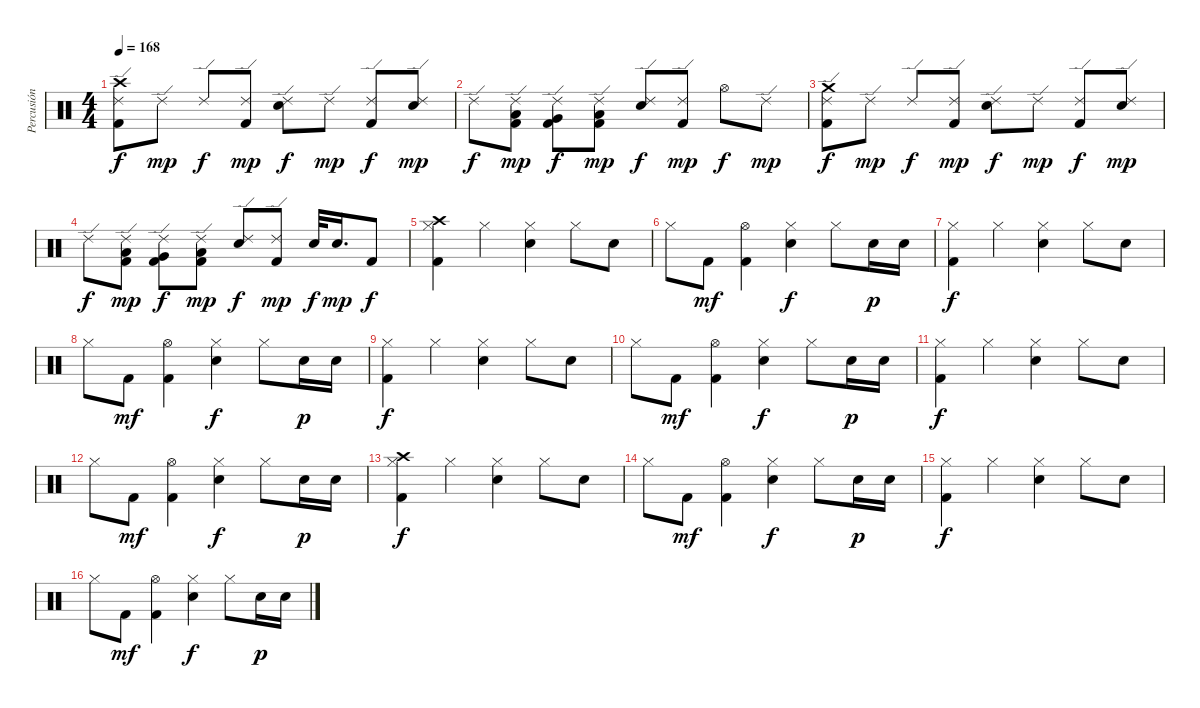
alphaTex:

\track ("Percusión" "Percusión") {instrument percussion}
\staff {score}
\articulation defaults
\ts (4 4)
\tempo 168
\clef neutral
\ks c
("Crash high (hit)" "Ride (edge) 2" "Kick (hit) 2").8{dy f} "Ride (edge) 2".8{dy mp} "Ride (edge) 2".8{dy f} ("Ride (edge) 2" "Kick (hit) 2").8{dy mp} ("Ride (edge) 2" "Electric Snare (hit)").8{dy f} "Ride (edge) 2".8{dy mp} ("Ride (edge) 2" "Kick (hit) 2").8{dy f} ("Ride (edge) 2" "Electric Snare (hit)").8{dy mp} |
"Ride (edge) 2".8{dy f} ("Ride (edge) 2" "Low Tom (hit)" "Kick (hit) 2").8{dy mp} ("Ride (edge) 2" "Very Low Tom (hit)" "Kick (hit) 2").8{dy f} ("Ride (edge) 2" "Low Floor Tom (hit)" "Kick (hit) 2").8{dy mp} ("Ride (edge) 2" "Electric Snare (hit)").8{dy f} ("Ride (edge) 2" "Kick (hit) 2").8{dy mp} "Hi-Hat (open)".8{dy f} "Ride (edge) 2".8{dy mp} |
("Crash medium (hit)" "Ride (edge) 2" "Kick (hit) 2").8{dy f} "Ride (edge) 2".8{dy mp} "Ride (edge) 2".8{dy f} ("Ride (edge) 2" "Kick (hit) 2").8{dy mp} ("Ride (edge) 2" "Electric Snare (hit)").8{dy f} "Ride (edge) 2".8{dy mp} ("Ride (edge) 2" "Kick (hit) 2").8{dy f} ("Ride (edge) 2" "Electric Snare (hit)").8{dy mp} |
"Ride (edge) 2".8{dy f} ("Ride (edge) 2" "Low Tom (hit)" "Kick (hit) 2").8{dy mp} ("Ride (edge) 2" "Very Low Tom (hit)" "Kick (hit) 2").8{dy f} ("Ride (edge) 2" "Low Floor Tom (hit)" "Kick (hit) 2").8{dy mp} ("Ride (edge) 2" "Electric Snare (hit)").8{dy f} ("Ride (edge) 2" "Kick (hit) 2").8{dy mp} "Electric Snare (hit)".32{dy f} "Electric Snare (hit)".16{d dy mp} "Kick (hit) 2".8{dy f} |
("Crash high (hit)" "Hi-Hat (closed)" "Kick (hit) 2").4 "Hi-Hat (closed)".4 ("Hi-Hat (closed)" "Electric Snare (hit)").4 "Hi-Hat (closed)".8 "Electric Snare (hit)".8 |
"Hi-Hat (closed)".8 "Kick (hit) 2".8{dy mf} ("Hi-Hat (open)" "Kick (hit) 2").4 ("Hi-Hat (closed)" "Electric Snare (hit)").4{dy f} "Hi-Hat (closed)".8 "Electric Snare (hit)".16{dy p} "Electric Snare (hit)".16 |
("Hi-Hat (closed)" "Kick (hit) 2").4{dy f} "Hi-Hat (closed)".4 ("Hi-Hat (closed)" "Electric Snare (hit)").4 "Hi-Hat (closed)".8 "Electric Snare (hit)".8 |
"Hi-Hat (closed)".8 "Kick (hit) 2".8{dy mf} ("Hi-Hat (open)" "Kick (hit) 2").4 ("Hi-Hat (closed)" "Electric Snare (hit)").4{dy f} "Hi-Hat (closed)".8 "Electric Snare (hit)".16{dy p} "Electric Snare (hit)".16 |
("Hi-Hat (closed)" "Kick (hit) 2").4{dy f} "Hi-Hat (closed)".4 ("Hi-Hat (closed)" "Electric Snare (hit)").4 "Hi-Hat (closed)".8 "Electric Snare (hit)".8 |
"Hi-Hat (closed)".8 "Kick (hit) 2".8{dy mf} ("Hi-Hat (open)" "Kick (hit) 2").4 ("Hi-Hat (closed)" "Electric Snare (hit)").4{dy f} "Hi-Hat (closed)".8 "Electric Snare (hit)".16{dy p} "Electric Snare (hit)".16 |
("Hi-Hat (closed)" "Kick (hit) 2").4{dy f} "Hi-Hat (closed)".4 ("Hi-Hat (closed)" "Electric Snare (hit)").4 "Hi-Hat (closed)".8 "Electric Snare (hit)".8 |
"Hi-Hat (closed)".8 "Kick (hit) 2".8{dy mf} ("Hi-Hat (open)" "Kick (hit) 2").4 ("Hi-Hat (closed)" "Electric Snare (hit)").4{dy f} "Hi-Hat (closed)".8 "Electric Snare (hit)".16{dy p} "Electric Snare (hit)".16 |
("Crash high (hit)" "Hi-Hat (closed)" "Kick (hit) 2").4{dy f} "Hi-Hat (closed)".4 ("Hi-Hat (closed)" "Electric Snare (hit)").4 "Hi-Hat (closed)".8 "Electric Snare (hit)".8 |
"Hi-Hat (closed)".8 "Kick (hit) 2".8{dy mf} ("Hi-Hat (open)" "Kick (hit) 2").4 ("Hi-Hat (closed)" "Electric Snare (hit)").4{dy f} "Hi-Hat (closed)".8 "Electric Snare (hit)".16{dy p} "Electric Snare (hit)".16 |
("Hi-Hat (closed)" "Kick (hit) 2").4{dy f} "Hi-Hat (closed)".4 ("Hi-Hat (closed)" "Electric Snare (hit)").4 "Hi-Hat (closed)".8 "Electric Snare (hit)".8 |
"Hi-Hat (closed)".8 "Kick (hit) 2".8{dy mf} ("Hi-Hat (open)" "Kick (hit) 2").4 ("Hi-Hat (closed)" "Electric Snare (hit)").4{dy f} "Hi-Hat (closed)".8 "Electric Snare (hit)".16{dy p} "Electric Snare (hit)".16
